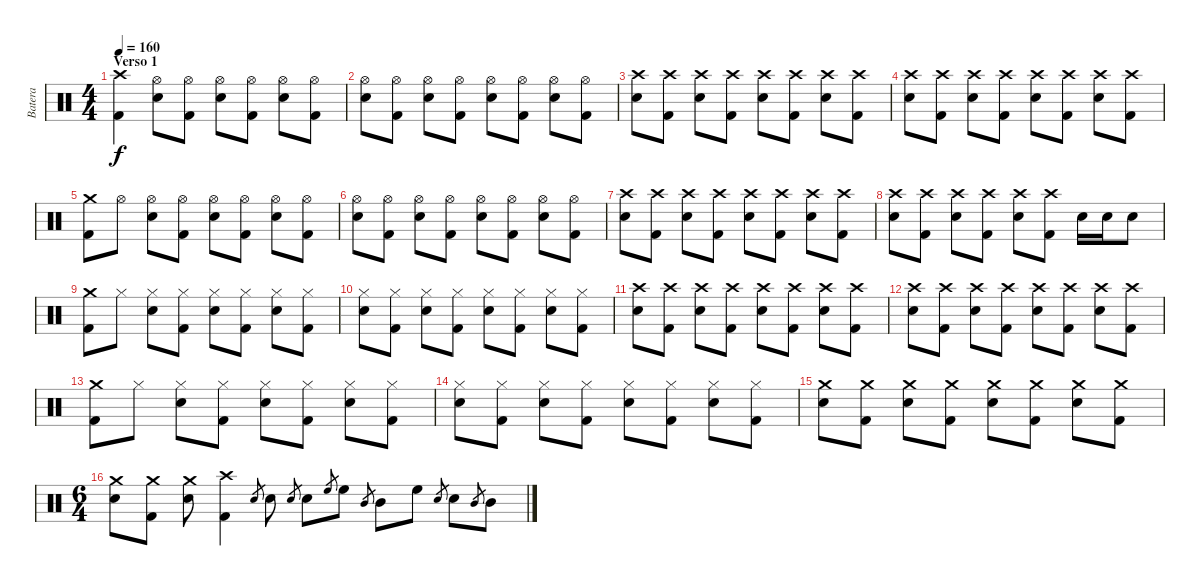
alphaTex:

\track ("Batera" "Batera") {instrument percussion}
\staff {score}
\articulation defaults
\ts (4 4)
\section ("" "Verso 1")
\tempo 160
\clef neutral
\ks c
("Crash high (hit)" "Kick (hit) 2").4{dy f} ("Hi-Hat (open)" "Electric Snare (hit)").8 ("Hi-Hat (open)" "Kick (hit) 2").8 ("Hi-Hat (open)" "Electric Snare (hit)").8 ("Hi-Hat (open)" "Kick (hit) 2").8 ("Hi-Hat (open)" "Electric Snare (hit)").8 ("Hi-Hat (open)" "Kick (hit) 2").8 |
("Hi-Hat (open)" "Electric Snare (hit)").8 ("Hi-Hat (open)" "Kick (hit) 2").8 ("Hi-Hat (open)" "Electric Snare (hit)").8 ("Hi-Hat (open)" "Kick (hit) 2").8 ("Hi-Hat (open)" "Electric Snare (hit)").8 ("Hi-Hat (open)" "Kick (hit) 2").8 ("Hi-Hat (open)" "Electric Snare (hit)").8 ("Hi-Hat (open)" "Kick (hit) 2").8 |
("Crash high (hit)" "Electric Snare (hit)").8 ("Crash high (hit)" "Kick (hit) 2").8 ("Crash high (hit)" "Electric Snare (hit)").8 ("Crash high (hit)" "Kick (hit) 2").8 ("Crash high (hit)" "Electric Snare (hit)").8 ("Crash high (hit)" "Kick (hit) 2").8 ("Crash high (hit)" "Electric Snare (hit)").8 ("Crash high (hit)" "Kick (hit) 2").8 |
("Crash high (hit)" "Electric Snare (hit)").8 ("Crash high (hit)" "Kick (hit) 2").8 ("Crash high (hit)" "Electric Snare (hit)").8 ("Crash high (hit)" "Kick (hit) 2").8 ("Crash high (hit)" "Electric Snare (hit)").8 ("Crash high (hit)" "Kick (hit) 2").8 ("Crash high (hit)" "Electric Snare (hit)").8 ("Crash high (hit)" "Kick (hit) 2").8 |
("Crash medium (hit)" "Kick (hit) 2").8 "Hi-Hat (open)".8 ("Hi-Hat (open)" "Electric Snare (hit)").8 ("Hi-Hat (open)" "Kick (hit) 2").8 ("Hi-Hat (open)" "Electric Snare (hit)").8 ("Hi-Hat (open)" "Kick (hit) 2").8 ("Hi-Hat (open)" "Electric Snare (hit)").8 ("Hi-Hat (open)" "Kick (hit) 2").8 |
("Hi-Hat (open)" "Electric Snare (hit)").8 ("Hi-Hat (open)" "Kick (hit) 2").8 ("Hi-Hat (open)" "Electric Snare (hit)").8 ("Hi-Hat (open)" "Kick (hit) 2").8 ("Hi-Hat (open)" "Electric Snare (hit)").8 ("Hi-Hat (open)" "Kick (hit) 2").8 ("Hi-Hat (open)" "Electric Snare (hit)").8 ("Hi-Hat (open)" "Kick (hit) 2").8 |
("Crash high (hit)" "Electric Snare (hit)").8 ("Crash high (hit)" "Kick (hit) 2").8 ("Crash high (hit)" "Electric Snare (hit)").8 ("Crash high (hit)" "Kick (hit) 2").8 ("Crash high (hit)" "Electric Snare (hit)").8 ("Crash high (hit)" "Kick (hit) 2").8 ("Crash high (hit)" "Electric Snare (hit)").8 ("Crash high (hit)" "Kick (hit) 2").8 |
("Crash high (hit)" "Electric Snare (hit)").8 ("Crash high (hit)" "Kick (hit) 2").8 ("Crash high (hit)" "Electric Snare (hit)").8 ("Crash high (hit)" "Kick (hit) 2").8 ("Crash high (hit)" "Electric Snare (hit)").8 ("Crash high (hit)" "Kick (hit) 2").8 "Electric Snare (hit)".16 "Electric Snare (hit)".16 "Electric Snare (hit)".8 |
("Crash medium (hit)" "Kick (hit) 2").8 "Hi-Hat (closed)".8 ("Hi-Hat (closed)" "Electric Snare (hit)").8 ("Hi-Hat (closed)" "Kick (hit) 2").8 ("Hi-Hat (closed)" "Electric Snare (hit)").8 ("Hi-Hat (closed)" "Kick (hit) 2").8 ("Hi-Hat (closed)" "Electric Snare (hit)").8 ("Hi-Hat (closed)" "Kick (hit) 2").8 |
("Hi-Hat (closed)" "Electric Snare (hit)").8 ("Hi-Hat (closed)" "Kick (hit) 2").8 ("Hi-Hat (closed)" "Electric Snare (hit)").8 ("Hi-Hat (closed)" "Kick (hit) 2").8 ("Hi-Hat (closed)" "Electric Snare (hit)").8 ("Hi-Hat (closed)" "Kick (hit) 2").8 ("Hi-Hat (closed)" "Electric Snare (hit)").8 ("Hi-Hat (closed)" "Kick (hit) 2").8 |
("Crash high (hit)" "Electric Snare (hit)").8 ("Crash high (hit)" "Kick (hit) 2").8 ("Crash high (hit)" "Electric Snare (hit)").8 ("Crash high (hit)" "Kick (hit) 2").8 ("Crash high (hit)" "Electric Snare (hit)").8 ("Crash high (hit)" "Kick (hit) 2").8 ("Crash high (hit)" "Electric Snare (hit)").8 ("Crash high (hit)" "Kick (hit) 2").8 |
("Crash high (hit)" "Electric Snare (hit)").8 ("Crash high (hit)" "Kick (hit) 2").8 ("Crash high (hit)" "Electric Snare (hit)").8 ("Crash high (hit)" "Kick (hit) 2").8 ("Crash high (hit)" "Electric Snare (hit)").8 ("Crash high (hit)" "Kick (hit) 2").8 ("Crash high (hit)" "Electric Snare (hit)").8 ("Crash high (hit)" "Kick (hit) 2").8 |
("Crash medium (hit)" "Kick (hit) 2").8 "Hi-Hat (closed)".8 ("Hi-Hat (closed)" "Electric Snare (hit)").8 ("Hi-Hat (closed)" "Kick (hit) 2").8 ("Hi-Hat (closed)" "Electric Snare (hit)").8 ("Hi-Hat (closed)" "Kick (hit) 2").8 ("Hi-Hat (closed)" "Electric Snare (hit)").8 ("Hi-Hat (closed)" "Kick (hit) 2").8 |
("Hi-Hat (closed)" "Electric Snare (hit)").8 ("Hi-Hat (closed)" "Kick (hit) 2").8 ("Hi-Hat (closed)" "Electric Snare (hit)").8 ("Hi-Hat (closed)" "Kick (hit) 2").8 ("Hi-Hat (closed)" "Electric Snare (hit)").8 ("Hi-Hat (closed)" "Kick (hit) 2").8 ("Hi-Hat (closed)" "Electric Snare (hit)").8 ("Hi-Hat (closed)" "Kick (hit) 2").8 |
("Crash medium (hit)" "Electric Snare (hit)").8 ("Crash medium (hit)" "Kick (hit) 2").8 ("Crash medium (hit)" "Electric Snare (hit)").8 ("Crash medium (hit)" "Kick (hit) 2").8 ("Crash medium (hit)" "Electric Snare (hit)").8 ("Crash medium (hit)" "Kick (hit) 2").8 ("Crash medium (hit)" "Electric Snare (hit)").8 ("Crash medium (hit)" "Kick (hit) 2").8 |
\ts (6 4)
("Crash medium (hit)" "Electric Snare (hit)").8 ("Crash medium (hit)" "Kick (hit) 2").8 ("Crash medium (hit)" "Electric Snare (hit)").8 ("Crash high (hit)" "Kick (hit) 2").4 "Electric Snare (hit)".8{gr} "Electric Snare (hit)".8 "Electric Snare (hit)".8{gr} "Electric Snare (hit)".8 "High Floor Tom (hit)".8{gr} "High Floor Tom (hit)".8 "Mid Tom (hit)".8{gr} "Mid Tom (hit)".8 "High Floor Tom (hit)".8 "Electric Snare (hit)".8{gr} "Electric Snare (hit)".8 "Mid Tom (hit)".8{gr} "Mid Tom (hit)".8
